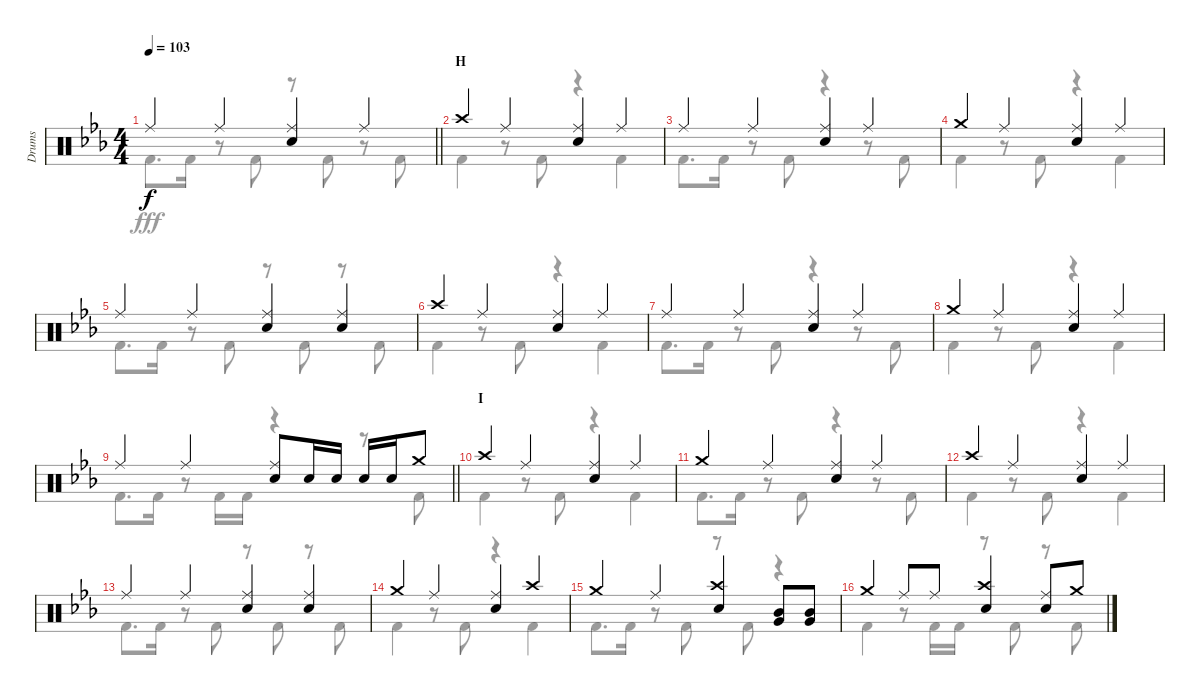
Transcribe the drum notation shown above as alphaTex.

\track ("Drums" "Drums") {instrument percussion}
\staff {score}
\articulation defaults
\voice
\ts (4 4)
\tempo 103
\clef neutral
\barLineRight lightlight
\ks eb "Ride (middle)".4{dy f} "Ride (middle)".4
("Ride (middle)" "Snare (hit) 2").4 "Ride (middle)".4 |
\section ("" "H")
"Crash high (hit)".4 "Ride (middle)".4 ("Ride (middle)" "Snare (hit) 2").4 "Ride (middle)".4 |
"Ride (middle)".4 "Ride (middle)".4 ("Ride (middle)" "Snare (hit) 2").4 "Ride (middle)".4 |
"Crash medium (hit)".4 "Ride (middle)".4 ("Ride (middle)" "Snare (hit) 2").4 "Ride (middle)".4 |
"Ride (middle)".4 "Ride (middle)".4 ("Ride (middle)" "Snare (hit) 2").4 ("Ride (middle)" "Snare (hit) 2").4 |
"Crash high (hit)".4 "Ride (middle)".4 ("Ride (middle)" "Snare (hit) 2").4 "Ride (middle)".4 |
"Ride (middle)".4 "Ride (middle)".4 ("Ride (middle)" "Snare (hit) 2").4 "Ride (middle)".4 |
"Crash medium (hit)".4 "Ride (middle)".4 ("Ride (middle)" "Snare (hit) 2").4 "Ride (middle)".4 |
\barLineRight lightlight "Ride (middle)".4 "Ride (middle)".4
("Ride (middle)" "Snare (hit) 2").8 "Snare (hit) 2".16 "Snare (hit) 2".16 "Snare (hit) 2".16 "Snare (hit) 2".16 "Crash medium (hit)".8 |
\section ("" "I")
"Crash high (hit)".4 "Ride (middle)".4 ("Ride (middle)" "Snare (hit) 2").4 "Ride (middle)".4 |
"Crash medium (hit)".4 "Ride (middle)".4 ("Ride (middle)" "Snare (hit) 2").4 "Ride (middle)".4 |
"Crash high (hit)".4 "Ride (middle)".4 ("Ride (middle)" "Snare (hit) 2").4 "Ride (middle)".4 |
"Ride (middle)".4 "Ride (middle)".4 ("Ride (middle)" "Snare (hit) 2").4 ("Ride (middle)" "Snare (hit) 2").4 |
"Crash medium (hit)".4 "Ride (middle)".4 ("Ride (middle)" "Snare (hit) 2").4 "Crash high (hit)".4 |
"Crash medium (hit)".4 "Ride (middle)".4 ("Crash high (hit)" "Snare (hit) 2").4 ("Mid Tom (hit)" "Very Low Tom (hit)").8 ("Mid Tom (hit)" "Very Low Tom (hit)").8 |
"Crash medium (hit)".4 "Ride (middle)".8 "Ride (middle)".8 ("Crash high (hit)" "Snare (hit) 2").4 ("Ride (middle)" "Snare (hit) 2").8 "Crash medium (hit)".8
\voice
\clef neutral
\ottava regular
\simile none
\barLineRight lightlight
\ks eb "Kick (hit) 2".8{d dy fff} "Kick (hit) 2".16
r.8 "Kick (hit) 2".8 r.8 "Kick (hit) 2".8 r.8 "Kick (hit) 2".8 |
"Kick (hit) 2".4 r.8 "Kick (hit) 2".8 r.4 "Kick (hit) 2".4 |
"Kick (hit) 2".8{d} "Kick (hit) 2".16 r.8 "Kick (hit) 2".8 r.4 r.8 "Kick (hit) 2".8 |
"Kick (hit) 2".4 r.8 "Kick (hit) 2".8 r.4 "Kick (hit) 2".4 |
"Kick (hit) 2".8{d} "Kick (hit) 2".16 r.8 "Kick (hit) 2".8 r.8 "Kick (hit) 2".8 r.8 "Kick (hit) 2".8 |
"Kick (hit) 2".4 r.8 "Kick (hit) 2".8 r.4 "Kick (hit) 2".4 |
"Kick (hit) 2".8{d} "Kick (hit) 2".16 r.8 "Kick (hit) 2".8 r.4 r.8 "Kick (hit) 2".8 |
"Kick (hit) 2".4 r.8 "Kick (hit) 2".8 r.4 "Kick (hit) 2".4 |
\barLineRight lightlight "Kick (hit) 2".8{d} "Kick (hit) 2".16
r.8 "Kick (hit) 2".16 "Kick (hit) 2".16 r.4 r.8 "Kick (hit) 2".8 |
"Kick (hit) 2".4 r.8 "Kick (hit) 2".8 r.4 "Kick (hit) 2".4 |
"Kick (hit) 2".8{d} "Kick (hit) 2".16 r.8 "Kick (hit) 2".8 r.4 r.8 "Kick (hit) 2".8 |
"Kick (hit) 2".4 r.8 "Kick (hit) 2".8 r.4 "Kick (hit) 2".4 |
"Kick (hit) 2".8{d} "Kick (hit) 2".16 r.8 "Kick (hit) 2".8 r.8 "Kick (hit) 2".8 r.8 "Kick (hit) 2".8 |
"Kick (hit) 2".4 r.8 "Kick (hit) 2".8 r.4 "Kick (hit) 2".4 |
"Kick (hit) 2".8{d} "Kick (hit) 2".16 r.8 "Kick (hit) 2".8 r.8 "Kick (hit) 2".8 r.4 |
"Kick (hit) 2".4 r.8 "Kick (hit) 2".16 "Kick (hit) 2".16 r.8 "Kick (hit) 2".8 r.8 "Kick (hit) 2".8
